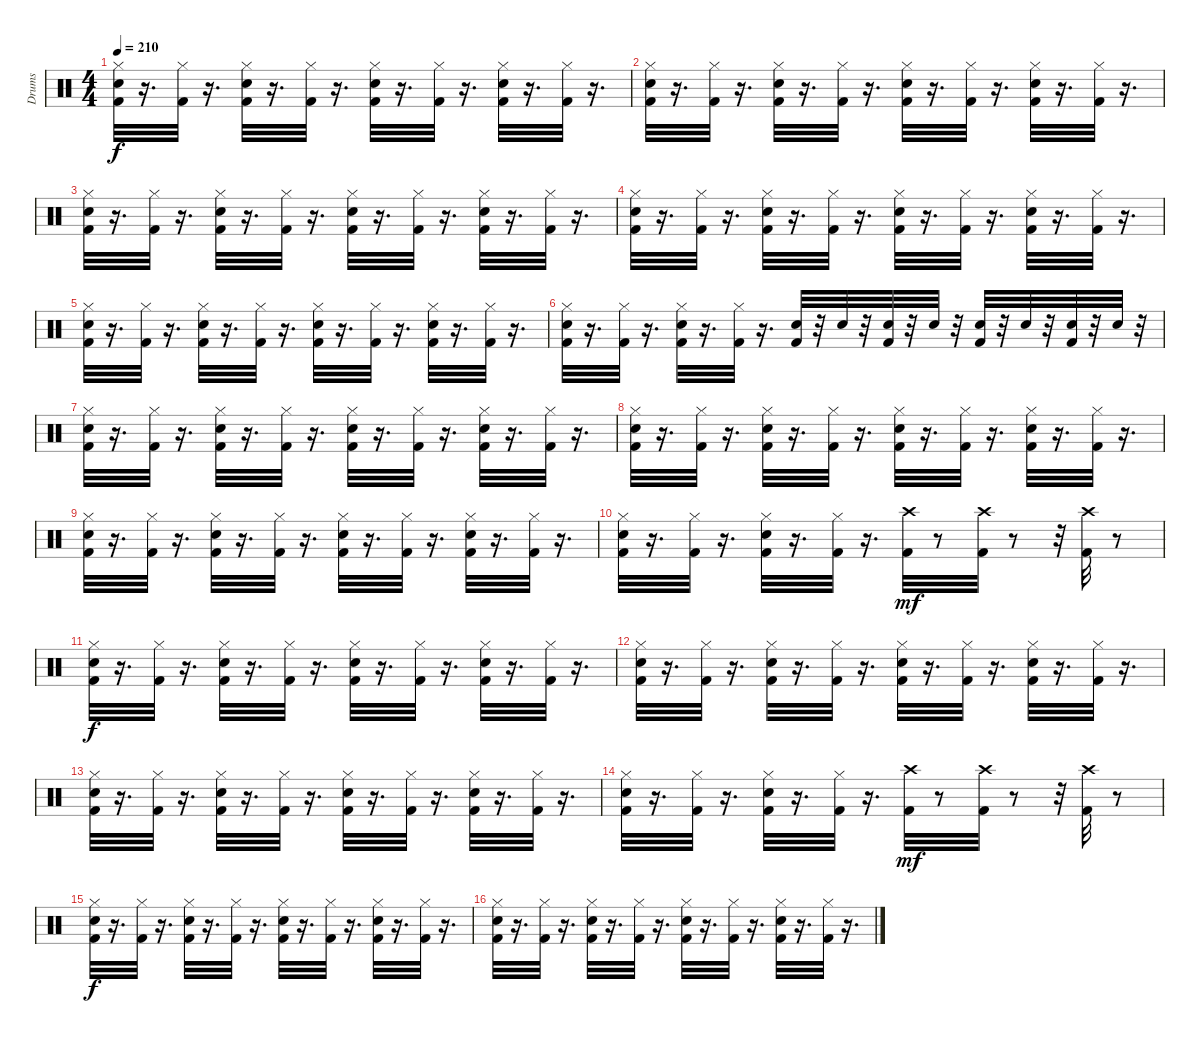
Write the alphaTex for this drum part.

\track ("Drums" "Drums") {instrument percussion}
\staff {score}
\articulation defaults
\ts (4 4)
\tempo 210
\clef neutral
\ks c
("Kick (hit) 2" "Snare (hit) 2" "Hi-Hat (closed)").32{dy f} r.16{d} ("Kick (hit) 2" "Hi-Hat (closed)").32 r.16{d} ("Kick (hit) 2" "Snare (hit) 2" "Hi-Hat (closed)").32 r.16{d} ("Kick (hit) 2" "Hi-Hat (closed)").32 r.16{d} ("Kick (hit) 2" "Snare (hit) 2" "Hi-Hat (closed)").32 r.16{d} ("Kick (hit) 2" "Hi-Hat (closed)").32 r.16{d} ("Kick (hit) 2" "Snare (hit) 2" "Hi-Hat (closed)").32 r.16{d} ("Kick (hit) 2" "Hi-Hat (closed)").32 r.16{d} |
("Kick (hit) 2" "Snare (hit) 2" "Hi-Hat (closed)").32 r.16{d} ("Kick (hit) 2" "Hi-Hat (closed)").32 r.16{d} ("Kick (hit) 2" "Snare (hit) 2" "Hi-Hat (closed)").32 r.16{d} ("Kick (hit) 2" "Hi-Hat (closed)").32 r.16{d} ("Kick (hit) 2" "Snare (hit) 2" "Hi-Hat (closed)").32 r.16{d} ("Kick (hit) 2" "Hi-Hat (closed)").32 r.16{d} ("Kick (hit) 2" "Snare (hit) 2" "Hi-Hat (closed)").32 r.16{d} ("Kick (hit) 2" "Hi-Hat (closed)").32 r.16{d} |
("Kick (hit) 2" "Snare (hit) 2" "Hi-Hat (closed)").32 r.16{d} ("Kick (hit) 2" "Hi-Hat (closed)").32 r.16{d} ("Kick (hit) 2" "Snare (hit) 2" "Hi-Hat (closed)").32 r.16{d} ("Kick (hit) 2" "Hi-Hat (closed)").32 r.16{d} ("Kick (hit) 2" "Snare (hit) 2" "Hi-Hat (closed)").32 r.16{d} ("Kick (hit) 2" "Hi-Hat (closed)").32 r.16{d} ("Kick (hit) 2" "Snare (hit) 2" "Hi-Hat (closed)").32 r.16{d} ("Kick (hit) 2" "Hi-Hat (closed)").32 r.16{d} |
("Kick (hit) 2" "Snare (hit) 2" "Hi-Hat (closed)").32 r.16{d} ("Kick (hit) 2" "Hi-Hat (closed)").32 r.16{d} ("Kick (hit) 2" "Snare (hit) 2" "Hi-Hat (closed)").32 r.16{d} ("Kick (hit) 2" "Hi-Hat (closed)").32 r.16{d} ("Kick (hit) 2" "Snare (hit) 2" "Hi-Hat (closed)").32 r.16{d} ("Kick (hit) 2" "Hi-Hat (closed)").32 r.16{d} ("Kick (hit) 2" "Snare (hit) 2" "Hi-Hat (closed)").32 r.16{d} ("Kick (hit) 2" "Hi-Hat (closed)").32 r.16{d} |
("Kick (hit) 2" "Snare (hit) 2" "Hi-Hat (closed)").32 r.16{d} ("Kick (hit) 2" "Hi-Hat (closed)").32 r.16{d} ("Kick (hit) 2" "Snare (hit) 2" "Hi-Hat (closed)").32 r.16{d} ("Kick (hit) 2" "Hi-Hat (closed)").32 r.16{d} ("Kick (hit) 2" "Snare (hit) 2" "Hi-Hat (closed)").32 r.16{d} ("Kick (hit) 2" "Hi-Hat (closed)").32 r.16{d} ("Kick (hit) 2" "Snare (hit) 2" "Hi-Hat (closed)").32 r.16{d} ("Kick (hit) 2" "Hi-Hat (closed)").32 r.16{d} |
("Kick (hit) 2" "Snare (hit) 2" "Hi-Hat (closed)").32 r.16{d} ("Kick (hit) 2" "Hi-Hat (closed)").32 r.16{d} ("Kick (hit) 2" "Snare (hit) 2" "Hi-Hat (closed)").32 r.16{d} ("Kick (hit) 2" "Hi-Hat (closed)").32 r.16{d} ("Kick (hit) 2" "Snare (hit) 2").32 r.32 "Snare (hit) 2".32 r.32 ("Kick (hit) 2" "Snare (hit) 2").32 r.32 "Snare (hit) 2".32 r.32 ("Kick (hit) 2" "Snare (hit) 2").32 r.32 "Snare (hit) 2".32 r.32 ("Kick (hit) 2" "Snare (hit) 2").32 r.32 "Snare (hit) 2".32 r.32 |
("Kick (hit) 2" "Snare (hit) 2" "Hi-Hat (closed)").32 r.16{d} ("Kick (hit) 2" "Hi-Hat (closed)").32 r.16{d} ("Kick (hit) 2" "Snare (hit) 2" "Hi-Hat (closed)").32 r.16{d} ("Kick (hit) 2" "Hi-Hat (closed)").32 r.16{d} ("Kick (hit) 2" "Snare (hit) 2" "Hi-Hat (closed)").32 r.16{d} ("Kick (hit) 2" "Hi-Hat (closed)").32 r.16{d} ("Kick (hit) 2" "Snare (hit) 2" "Hi-Hat (closed)").32 r.16{d} ("Kick (hit) 2" "Hi-Hat (closed)").32 r.16{d} |
("Kick (hit) 2" "Snare (hit) 2" "Hi-Hat (closed)").32 r.16{d} ("Kick (hit) 2" "Hi-Hat (closed)").32 r.16{d} ("Kick (hit) 2" "Snare (hit) 2" "Hi-Hat (closed)").32 r.16{d} ("Kick (hit) 2" "Hi-Hat (closed)").32 r.16{d} ("Kick (hit) 2" "Snare (hit) 2" "Hi-Hat (closed)").32 r.16{d} ("Kick (hit) 2" "Hi-Hat (closed)").32 r.16{d} ("Kick (hit) 2" "Snare (hit) 2" "Hi-Hat (closed)").32 r.16{d} ("Kick (hit) 2" "Hi-Hat (closed)").32 r.16{d} |
("Kick (hit) 2" "Snare (hit) 2" "Hi-Hat (closed)").32 r.16{d} ("Kick (hit) 2" "Hi-Hat (closed)").32 r.16{d} ("Kick (hit) 2" "Snare (hit) 2" "Hi-Hat (closed)").32 r.16{d} ("Kick (hit) 2" "Hi-Hat (closed)").32 r.16{d} ("Kick (hit) 2" "Snare (hit) 2" "Hi-Hat (closed)").32 r.16{d} ("Kick (hit) 2" "Hi-Hat (closed)").32 r.16{d} ("Kick (hit) 2" "Snare (hit) 2" "Hi-Hat (closed)").32 r.16{d} ("Kick (hit) 2" "Hi-Hat (closed)").32 r.16{d} |
("Kick (hit) 2" "Snare (hit) 2" "Hi-Hat (closed)").32 r.16{d} ("Kick (hit) 2" "Hi-Hat (closed)").32 r.16{d} ("Kick (hit) 2" "Snare (hit) 2" "Hi-Hat (closed)").32 r.16{d} ("Kick (hit) 2" "Hi-Hat (closed)").32 r.16{d} ("Kick (hit) 2" "Crash high (hit)").32{dy mf} r.8 ("Kick (hit) 2" "Crash high (hit)").32 r.8 r.32 ("Kick (hit) 2" "Crash high (hit)").32 r.8 |
("Kick (hit) 2" "Snare (hit) 2" "Hi-Hat (closed)").32{dy f} r.16{d} ("Kick (hit) 2" "Hi-Hat (closed)").32 r.16{d} ("Kick (hit) 2" "Snare (hit) 2" "Hi-Hat (closed)").32 r.16{d} ("Kick (hit) 2" "Hi-Hat (closed)").32 r.16{d} ("Kick (hit) 2" "Snare (hit) 2" "Hi-Hat (closed)").32 r.16{d} ("Kick (hit) 2" "Hi-Hat (closed)").32 r.16{d} ("Kick (hit) 2" "Snare (hit) 2" "Hi-Hat (closed)").32 r.16{d} ("Kick (hit) 2" "Hi-Hat (closed)").32 r.16{d} |
("Kick (hit) 2" "Snare (hit) 2" "Hi-Hat (closed)").32 r.16{d} ("Kick (hit) 2" "Hi-Hat (closed)").32 r.16{d} ("Kick (hit) 2" "Snare (hit) 2" "Hi-Hat (closed)").32 r.16{d} ("Kick (hit) 2" "Hi-Hat (closed)").32 r.16{d} ("Kick (hit) 2" "Snare (hit) 2" "Hi-Hat (closed)").32 r.16{d} ("Kick (hit) 2" "Hi-Hat (closed)").32 r.16{d} ("Kick (hit) 2" "Snare (hit) 2" "Hi-Hat (closed)").32 r.16{d} ("Kick (hit) 2" "Hi-Hat (closed)").32 r.16{d} |
("Kick (hit) 2" "Snare (hit) 2" "Hi-Hat (closed)").32 r.16{d} ("Kick (hit) 2" "Hi-Hat (closed)").32 r.16{d} ("Kick (hit) 2" "Snare (hit) 2" "Hi-Hat (closed)").32 r.16{d} ("Kick (hit) 2" "Hi-Hat (closed)").32 r.16{d} ("Kick (hit) 2" "Snare (hit) 2" "Hi-Hat (closed)").32 r.16{d} ("Kick (hit) 2" "Hi-Hat (closed)").32 r.16{d} ("Kick (hit) 2" "Snare (hit) 2" "Hi-Hat (closed)").32 r.16{d} ("Kick (hit) 2" "Hi-Hat (closed)").32 r.16{d} |
("Kick (hit) 2" "Snare (hit) 2" "Hi-Hat (closed)").32 r.16{d} ("Kick (hit) 2" "Hi-Hat (closed)").32 r.16{d} ("Kick (hit) 2" "Snare (hit) 2" "Hi-Hat (closed)").32 r.16{d} ("Kick (hit) 2" "Hi-Hat (closed)").32 r.16{d} ("Kick (hit) 2" "Crash high (hit)").32{dy mf} r.8 ("Kick (hit) 2" "Crash high (hit)").32 r.8 r.32 ("Kick (hit) 2" "Crash high (hit)").32 r.8 |
("Kick (hit) 2" "Snare (hit) 2" "Hi-Hat (closed)").32{dy f} r.16{d} ("Kick (hit) 2" "Hi-Hat (closed)").32 r.16{d} ("Kick (hit) 2" "Snare (hit) 2" "Hi-Hat (closed)").32 r.16{d} ("Kick (hit) 2" "Hi-Hat (closed)").32 r.16{d} ("Kick (hit) 2" "Snare (hit) 2" "Hi-Hat (closed)").32 r.16{d} ("Kick (hit) 2" "Hi-Hat (closed)").32 r.16{d} ("Kick (hit) 2" "Snare (hit) 2" "Hi-Hat (closed)").32 r.16{d} ("Kick (hit) 2" "Hi-Hat (closed)").32 r.16{d} |
("Kick (hit) 2" "Snare (hit) 2" "Hi-Hat (closed)").32 r.16{d} ("Kick (hit) 2" "Hi-Hat (closed)").32 r.16{d} ("Kick (hit) 2" "Snare (hit) 2" "Hi-Hat (closed)").32 r.16{d} ("Kick (hit) 2" "Hi-Hat (closed)").32 r.16{d} ("Kick (hit) 2" "Snare (hit) 2" "Hi-Hat (closed)").32 r.16{d} ("Kick (hit) 2" "Hi-Hat (closed)").32 r.16{d} ("Kick (hit) 2" "Snare (hit) 2" "Hi-Hat (closed)").32 r.16{d} ("Kick (hit) 2" "Hi-Hat (closed)").32 r.16{d}
